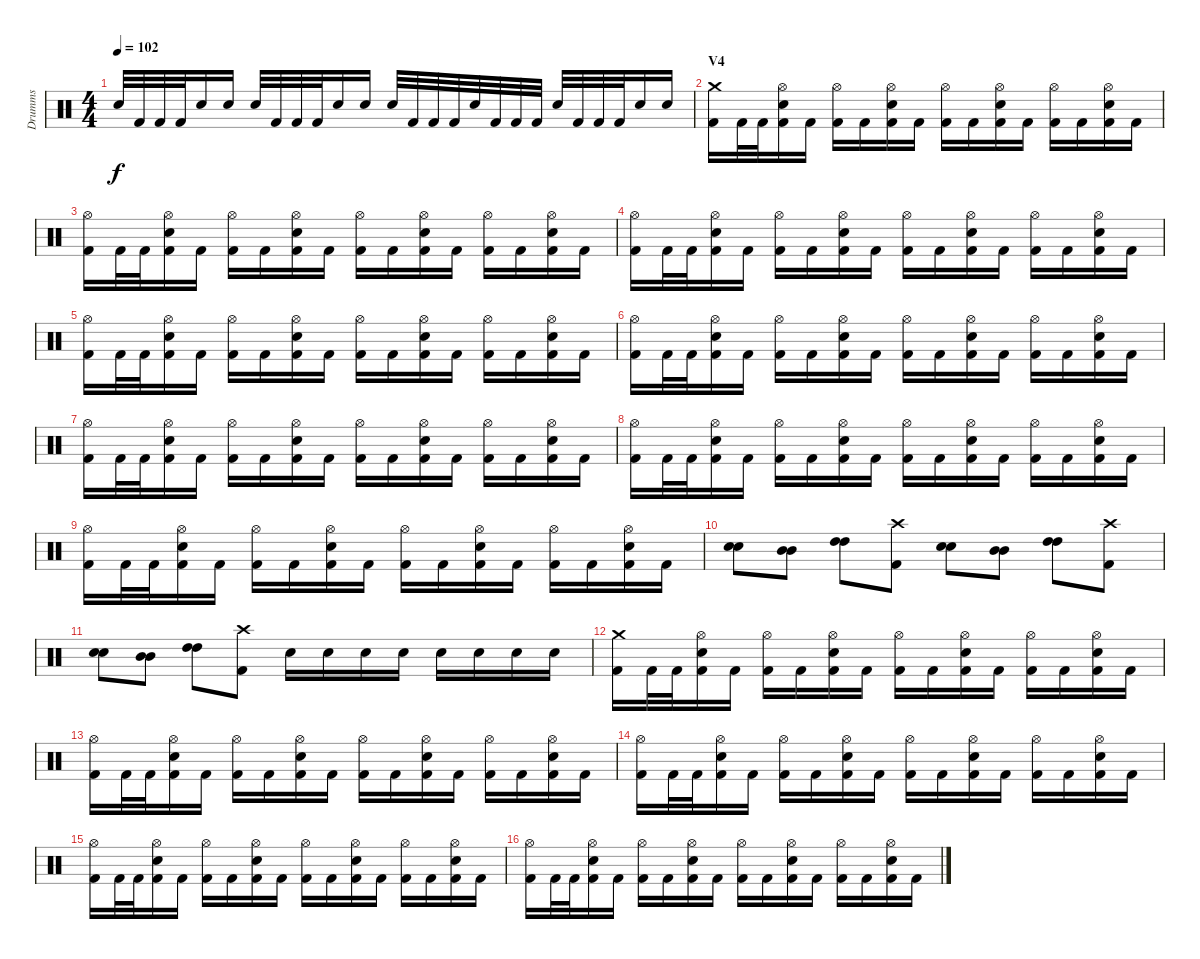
\track ("Drumms" "Drumms") {instrument percussion}
\staff {score}
\articulation defaults
\ts (4 4)
\tempo 102
\clef neutral
\ks c "Snare (hit) 2".32{dy f} "Kick (hit) 2".32 "Kick (hit) 2".32 "Kick (hit) 2".32 "Snare (hit) 2".16 "Snare (hit) 2".16 "Snare (hit) 2".32 "Kick (hit) 2".32 "Kick (hit) 2".32 "Kick (hit) 2".32 "Snare (hit) 2".16 "Snare (hit) 2".16 "Snare (hit) 2".32 "Kick (hit) 2".32 "Kick (hit) 2".32 "Kick (hit) 2".32 "Snare (hit) 2".32 "Kick (hit) 2".32 "Kick (hit) 2".32 "Kick (hit) 2".32 "Snare (hit) 2".32 "Kick (hit) 2".32 "Kick (hit) 2".32 "Kick (hit) 2".32 "Snare (hit) 2".16 "Snare (hit) 2".16
|
\section ("" "V4")
("Crash medium (hit)" "Kick (hit) 2").16 "Kick (hit) 2".32 "Kick (hit) 2".32 ("Hi-Hat (open)" "Snare (hit) 2" "Kick (hit) 2").16 "Kick (hit) 2".16 ("Hi-Hat (open)" "Kick (hit) 2").16 "Kick (hit) 2".16 ("Hi-Hat (open)" "Snare (hit) 2" "Kick (hit) 2").16 "Kick (hit) 2".16 ("Hi-Hat (open)" "Kick (hit) 2").16 "Kick (hit) 2".16 ("Hi-Hat (open)" "Snare (hit) 2" "Kick (hit) 2").16 "Kick (hit) 2".16 ("Hi-Hat (open)" "Kick (hit) 2").16 "Kick (hit) 2".16 ("Hi-Hat (open)" "Snare (hit) 2" "Kick (hit) 2").16 "Kick (hit) 2".16 |
("Hi-Hat (open)" "Kick (hit) 2").16 "Kick (hit) 2".32 "Kick (hit) 2".32 ("Hi-Hat (open)" "Snare (hit) 2" "Kick (hit) 2").16 "Kick (hit) 2".16 ("Hi-Hat (open)" "Kick (hit) 2").16 "Kick (hit) 2".16 ("Hi-Hat (open)" "Snare (hit) 2" "Kick (hit) 2").16 "Kick (hit) 2".16 ("Hi-Hat (open)" "Kick (hit) 2").16 "Kick (hit) 2".16 ("Hi-Hat (open)" "Snare (hit) 2" "Kick (hit) 2").16 "Kick (hit) 2".16 ("Hi-Hat (open)" "Kick (hit) 2").16 "Kick (hit) 2".16 ("Hi-Hat (open)" "Snare (hit) 2" "Kick (hit) 2").16 "Kick (hit) 2".16 |
("Hi-Hat (open)" "Kick (hit) 2").16 "Kick (hit) 2".32 "Kick (hit) 2".32 ("Hi-Hat (open)" "Snare (hit) 2" "Kick (hit) 2").16 "Kick (hit) 2".16 ("Hi-Hat (open)" "Kick (hit) 2").16 "Kick (hit) 2".16 ("Hi-Hat (open)" "Snare (hit) 2" "Kick (hit) 2").16 "Kick (hit) 2".16 ("Hi-Hat (open)" "Kick (hit) 2").16 "Kick (hit) 2".16 ("Hi-Hat (open)" "Snare (hit) 2" "Kick (hit) 2").16 "Kick (hit) 2".16 ("Hi-Hat (open)" "Kick (hit) 2").16 "Kick (hit) 2".16 ("Hi-Hat (open)" "Snare (hit) 2" "Kick (hit) 2").16 "Kick (hit) 2".16 |
("Hi-Hat (open)" "Kick (hit) 2").16 "Kick (hit) 2".32 "Kick (hit) 2".32 ("Hi-Hat (open)" "Snare (hit) 2" "Kick (hit) 2").16 "Kick (hit) 2".16 ("Hi-Hat (open)" "Kick (hit) 2").16 "Kick (hit) 2".16 ("Hi-Hat (open)" "Snare (hit) 2" "Kick (hit) 2").16 "Kick (hit) 2".16 ("Hi-Hat (open)" "Kick (hit) 2").16 "Kick (hit) 2".16 ("Hi-Hat (open)" "Snare (hit) 2" "Kick (hit) 2").16 "Kick (hit) 2".16 ("Hi-Hat (open)" "Kick (hit) 2").16 "Kick (hit) 2".16 ("Hi-Hat (open)" "Snare (hit) 2" "Kick (hit) 2").16 "Kick (hit) 2".16 |
("Hi-Hat (open)" "Kick (hit) 2").16 "Kick (hit) 2".32 "Kick (hit) 2".32 ("Hi-Hat (open)" "Snare (hit) 2" "Kick (hit) 2").16 "Kick (hit) 2".16 ("Hi-Hat (open)" "Kick (hit) 2").16 "Kick (hit) 2".16 ("Hi-Hat (open)" "Snare (hit) 2" "Kick (hit) 2").16 "Kick (hit) 2".16 ("Hi-Hat (open)" "Kick (hit) 2").16 "Kick (hit) 2".16 ("Hi-Hat (open)" "Snare (hit) 2" "Kick (hit) 2").16 "Kick (hit) 2".16 ("Hi-Hat (open)" "Kick (hit) 2").16 "Kick (hit) 2".16 ("Hi-Hat (open)" "Snare (hit) 2" "Kick (hit) 2").16 "Kick (hit) 2".16 |
("Hi-Hat (open)" "Kick (hit) 2").16 "Kick (hit) 2".32 "Kick (hit) 2".32 ("Hi-Hat (open)" "Snare (hit) 2" "Kick (hit) 2").16 "Kick (hit) 2".16 ("Hi-Hat (open)" "Kick (hit) 2").16 "Kick (hit) 2".16 ("Hi-Hat (open)" "Snare (hit) 2" "Kick (hit) 2").16 "Kick (hit) 2".16 ("Hi-Hat (open)" "Kick (hit) 2").16 "Kick (hit) 2".16 ("Hi-Hat (open)" "Snare (hit) 2" "Kick (hit) 2").16 "Kick (hit) 2".16 ("Hi-Hat (open)" "Kick (hit) 2").16 "Kick (hit) 2".16 ("Hi-Hat (open)" "Snare (hit) 2" "Kick (hit) 2").16 "Kick (hit) 2".16 |
("Hi-Hat (open)" "Kick (hit) 2").16 "Kick (hit) 2".32 "Kick (hit) 2".32 ("Hi-Hat (open)" "Snare (hit) 2" "Kick (hit) 2").16 "Kick (hit) 2".16 ("Hi-Hat (open)" "Kick (hit) 2").16 "Kick (hit) 2".16 ("Hi-Hat (open)" "Snare (hit) 2" "Kick (hit) 2").16 "Kick (hit) 2".16 ("Hi-Hat (open)" "Kick (hit) 2").16 "Kick (hit) 2".16 ("Hi-Hat (open)" "Snare (hit) 2" "Kick (hit) 2").16 "Kick (hit) 2".16 ("Hi-Hat (open)" "Kick (hit) 2").16 "Kick (hit) 2".16 ("Hi-Hat (open)" "Snare (hit) 2" "Kick (hit) 2").16 "Kick (hit) 2".16 |
("Hi-Hat (open)" "Kick (hit) 2").16 "Kick (hit) 2".32 "Kick (hit) 2".32 ("Hi-Hat (open)" "Snare (hit) 2" "Kick (hit) 2").16 "Kick (hit) 2".16 ("Hi-Hat (open)" "Kick (hit) 2").16 "Kick (hit) 2".16 ("Hi-Hat (open)" "Snare (hit) 2" "Kick (hit) 2").16 "Kick (hit) 2".16 ("Hi-Hat (open)" "Kick (hit) 2").16 "Kick (hit) 2".16 ("Hi-Hat (open)" "Snare (hit) 2" "Kick (hit) 2").16 "Kick (hit) 2".16 ("Hi-Hat (open)" "Kick (hit) 2").16 "Kick (hit) 2".16 ("Hi-Hat (open)" "Snare (hit) 2" "Kick (hit) 2").16 "Kick (hit) 2".16 |
("Snare (hit) 2" "Snare (hit) 2").8 ("Mid Tom (hit)" "Mid Tom (hit)").8 ("High Tom (hit)" "High Tom (hit)").8 ("Crash high (hit)" "Kick (hit) 2").8 ("Snare (hit) 2" "Snare (hit) 2").8 ("Mid Tom (hit)" "Mid Tom (hit)").8 ("High Tom (hit)" "High Tom (hit)").8 ("Crash high (hit)" "Kick (hit) 2").8 |
("Snare (hit) 2" "Snare (hit) 2").8 ("Mid Tom (hit)" "Mid Tom (hit)").8 ("High Tom (hit)" "High Tom (hit)").8 ("Crash high (hit)" "Kick (hit) 2").8 "Snare (hit) 2".16 "Snare (hit) 2".16 "Snare (hit) 2".16 "Snare (hit) 2".16 "Snare (hit) 2".16 "Snare (hit) 2".16 "Snare (hit) 2".16 "Snare (hit) 2".16 |
("Crash medium (hit)" "Kick (hit) 2").16 "Kick (hit) 2".32 "Kick (hit) 2".32 ("Hi-Hat (open)" "Snare (hit) 2" "Kick (hit) 2").16 "Kick (hit) 2".16 ("Hi-Hat (open)" "Kick (hit) 2").16 "Kick (hit) 2".16 ("Hi-Hat (open)" "Snare (hit) 2" "Kick (hit) 2").16 "Kick (hit) 2".16 ("Hi-Hat (open)" "Kick (hit) 2").16 "Kick (hit) 2".16 ("Hi-Hat (open)" "Snare (hit) 2" "Kick (hit) 2").16 "Kick (hit) 2".16 ("Hi-Hat (open)" "Kick (hit) 2").16 "Kick (hit) 2".16 ("Hi-Hat (open)" "Snare (hit) 2" "Kick (hit) 2").16 "Kick (hit) 2".16 |
("Hi-Hat (open)" "Kick (hit) 2").16 "Kick (hit) 2".32 "Kick (hit) 2".32 ("Hi-Hat (open)" "Snare (hit) 2" "Kick (hit) 2").16 "Kick (hit) 2".16 ("Hi-Hat (open)" "Kick (hit) 2").16 "Kick (hit) 2".16 ("Hi-Hat (open)" "Snare (hit) 2" "Kick (hit) 2").16 "Kick (hit) 2".16 ("Hi-Hat (open)" "Kick (hit) 2").16 "Kick (hit) 2".16 ("Hi-Hat (open)" "Snare (hit) 2" "Kick (hit) 2").16 "Kick (hit) 2".16 ("Hi-Hat (open)" "Kick (hit) 2").16 "Kick (hit) 2".16 ("Hi-Hat (open)" "Snare (hit) 2" "Kick (hit) 2").16 "Kick (hit) 2".16 |
("Hi-Hat (open)" "Kick (hit) 2").16 "Kick (hit) 2".32 "Kick (hit) 2".32 ("Hi-Hat (open)" "Snare (hit) 2" "Kick (hit) 2").16 "Kick (hit) 2".16 ("Hi-Hat (open)" "Kick (hit) 2").16 "Kick (hit) 2".16 ("Hi-Hat (open)" "Snare (hit) 2" "Kick (hit) 2").16 "Kick (hit) 2".16 ("Hi-Hat (open)" "Kick (hit) 2").16 "Kick (hit) 2".16 ("Hi-Hat (open)" "Snare (hit) 2" "Kick (hit) 2").16 "Kick (hit) 2".16 ("Hi-Hat (open)" "Kick (hit) 2").16 "Kick (hit) 2".16 ("Hi-Hat (open)" "Snare (hit) 2" "Kick (hit) 2").16 "Kick (hit) 2".16 |
("Hi-Hat (open)" "Kick (hit) 2").16 "Kick (hit) 2".32 "Kick (hit) 2".32 ("Hi-Hat (open)" "Snare (hit) 2" "Kick (hit) 2").16 "Kick (hit) 2".16 ("Hi-Hat (open)" "Kick (hit) 2").16 "Kick (hit) 2".16 ("Hi-Hat (open)" "Snare (hit) 2" "Kick (hit) 2").16 "Kick (hit) 2".16 ("Hi-Hat (open)" "Kick (hit) 2").16 "Kick (hit) 2".16 ("Hi-Hat (open)" "Snare (hit) 2" "Kick (hit) 2").16 "Kick (hit) 2".16 ("Hi-Hat (open)" "Kick (hit) 2").16 "Kick (hit) 2".16 ("Hi-Hat (open)" "Snare (hit) 2" "Kick (hit) 2").16 "Kick (hit) 2".16 |
("Hi-Hat (open)" "Kick (hit) 2").16 "Kick (hit) 2".32 "Kick (hit) 2".32 ("Hi-Hat (open)" "Snare (hit) 2" "Kick (hit) 2").16 "Kick (hit) 2".16 ("Hi-Hat (open)" "Kick (hit) 2").16 "Kick (hit) 2".16 ("Hi-Hat (open)" "Snare (hit) 2" "Kick (hit) 2").16 "Kick (hit) 2".16 ("Hi-Hat (open)" "Kick (hit) 2").16 "Kick (hit) 2".16 ("Hi-Hat (open)" "Snare (hit) 2" "Kick (hit) 2").16 "Kick (hit) 2".16 ("Hi-Hat (open)" "Kick (hit) 2").16 "Kick (hit) 2".16 ("Hi-Hat (open)" "Snare (hit) 2" "Kick (hit) 2").16 "Kick (hit) 2".16
